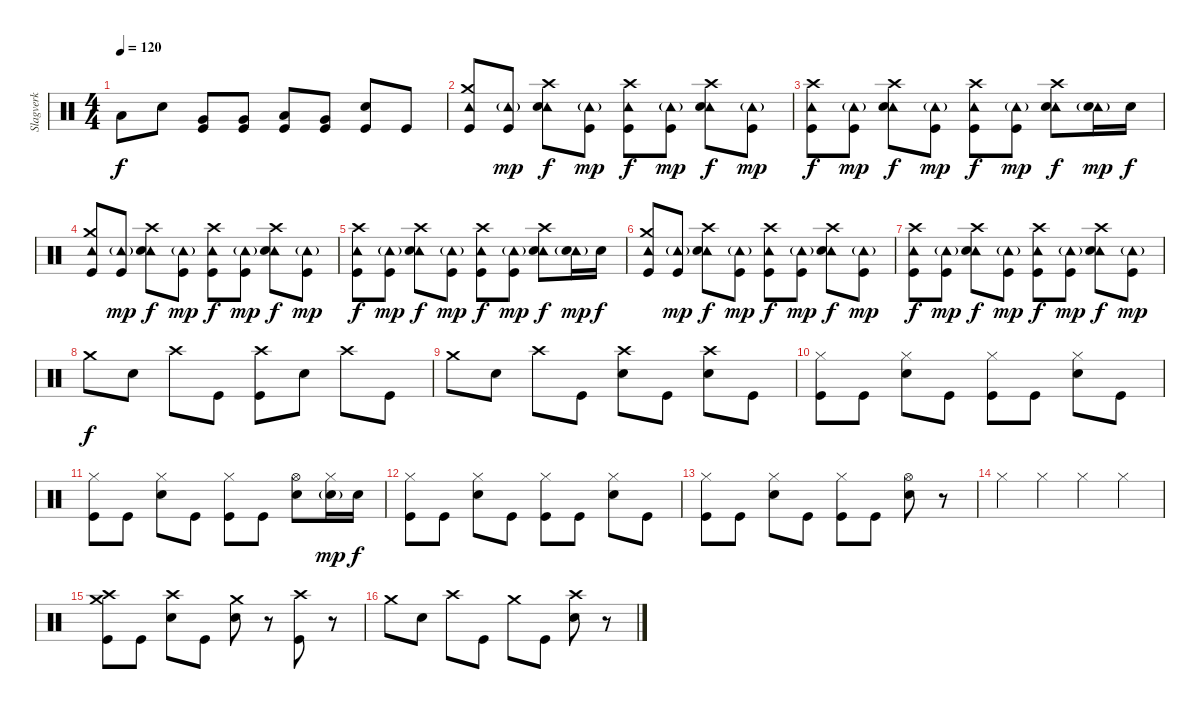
\track ("Slagverk" "Slagverk") {instrument percussion}
\staff {score}
\articulation defaults
\ts (4 4)
\tempo 120
\clef neutral
\ks c "Low Floor Tom (hit)".8{dy f} "Snare (hit) 2".8
("Very Low Tom (hit)" "Kick (hit)").8 ("Very Low Tom (hit)" "Kick (hit)").8 ("Low Tom (hit)" "Kick (hit)").8 ("Very Low Tom (hit)" "Kick (hit)").8 ("Snare (hit) 2" "Kick (hit)").8 "Kick (hit)".8 |
("Crash medium (hit)" "Tambourine (hit)" "Kick (hit)").8 ("Tambourine (hit)"{g} "Kick (hit)").8{dy mp} ("Crash high (hit)" "Tambourine (hit)" "Snare (hit) 2").8{dy f} ("Tambourine (hit)"{g} "Kick (hit)").8{dy mp} ("Crash high (hit)" "Tambourine (hit)" "Kick (hit)").8{dy f} ("Tambourine (hit)"{g} "Kick (hit)").8{dy mp} ("Crash high (hit)" "Tambourine (hit)" "Snare (hit) 2").8{dy f} ("Tambourine (hit)"{g} "Kick (hit)").8{dy mp} |
("Crash high (hit)" "Tambourine (hit)" "Kick (hit)").8{dy f} ("Tambourine (hit)"{g} "Kick (hit)").8{dy mp} ("Crash high (hit)" "Tambourine (hit)" "Snare (hit) 2").8{dy f} ("Tambourine (hit)"{g} "Kick (hit)").8{dy mp} ("Crash high (hit)" "Tambourine (hit)" "Kick (hit)").8{dy f} ("Tambourine (hit)"{g} "Kick (hit)").8{dy mp} ("Crash high (hit)" "Tambourine (hit)" "Snare (hit) 2").8{dy f} ("Tambourine (hit)"{g} "Snare (hit) 2").16{dy mp} "Snare (hit) 2".16{dy f} |
("Crash medium (hit)" "Tambourine (hit)" "Kick (hit)").8 ("Tambourine (hit)"{g} "Kick (hit)").8{dy mp} ("Crash high (hit)" "Tambourine (hit)" "Snare (hit) 2").8{dy f} ("Tambourine (hit)"{g} "Kick (hit)").8{dy mp} ("Crash high (hit)" "Tambourine (hit)" "Kick (hit)").8{dy f} ("Tambourine (hit)"{g} "Kick (hit)").8{dy mp} ("Crash high (hit)" "Tambourine (hit)" "Snare (hit) 2").8{dy f} ("Tambourine (hit)"{g} "Kick (hit)").8{dy mp} |
("Crash high (hit)" "Tambourine (hit)" "Kick (hit)").8{dy f} ("Tambourine (hit)"{g} "Kick (hit)").8{dy mp} ("Crash high (hit)" "Tambourine (hit)" "Snare (hit) 2").8{dy f} ("Tambourine (hit)"{g} "Kick (hit)").8{dy mp} ("Crash high (hit)" "Tambourine (hit)" "Kick (hit)").8{dy f} ("Tambourine (hit)"{g} "Kick (hit)").8{dy mp} ("Crash high (hit)" "Tambourine (hit)" "Snare (hit) 2").8{dy f} ("Tambourine (hit)"{g} "Snare (hit) 2").16{dy mp} "Snare (hit) 2".16{dy f} |
("Crash medium (hit)" "Tambourine (hit)" "Kick (hit)").8 ("Tambourine (hit)"{g} "Kick (hit)").8{dy mp} ("Crash high (hit)" "Tambourine (hit)" "Snare (hit) 2").8{dy f} ("Tambourine (hit)"{g} "Kick (hit)").8{dy mp} ("Crash high (hit)" "Tambourine (hit)" "Kick (hit)").8{dy f} ("Tambourine (hit)"{g} "Kick (hit)").8{dy mp} ("Crash high (hit)" "Tambourine (hit)" "Snare (hit) 2").8{dy f} ("Tambourine (hit)"{g} "Kick (hit)").8{dy mp} |
("Crash high (hit)" "Tambourine (hit)" "Kick (hit)").8{dy f} ("Tambourine (hit)"{g} "Kick (hit)").8{dy mp} ("Crash high (hit)" "Tambourine (hit)" "Snare (hit) 2").8{dy f} ("Tambourine (hit)"{g} "Kick (hit)").8{dy mp} ("Crash high (hit)" "Tambourine (hit)" "Kick (hit)").8{dy f} ("Tambourine (hit)"{g} "Kick (hit)").8{dy mp} ("Crash high (hit)" "Tambourine (hit)" "Snare (hit) 2").8{dy f} ("Tambourine (hit)"{g} "Kick (hit)").8{dy mp} |
"Crash medium (hit)".8{dy f} "Snare (hit) 2".8 "Crash high (hit)".8 "Kick (hit)".8 ("Crash high (hit)" "Kick (hit)").8 "Snare (hit) 2".8 "Crash high (hit)".8 "Kick (hit)".8 |
"Crash medium (hit)".8 "Snare (hit) 2".8 "Crash high (hit)".8 "Kick (hit)".8 ("Crash high (hit)" "Snare (hit) 2").8 "Kick (hit)".8 ("Crash high (hit)" "Snare (hit) 2").8 "Kick (hit)".8 |
("Hi-Hat (closed)" "Kick (hit)").8 "Kick (hit)".8 ("Hi-Hat (closed)" "Snare (hit) 2").8 "Kick (hit)".8 ("Hi-Hat (closed)" "Kick (hit)").8 "Kick (hit)".8 ("Hi-Hat (closed)" "Snare (hit) 2").8 "Kick (hit)".8 |
("Hi-Hat (closed)" "Kick (hit)").8 "Kick (hit)".8 ("Hi-Hat (closed)" "Snare (hit) 2").8 "Kick (hit)".8 ("Hi-Hat (closed)" "Kick (hit)").8 "Kick (hit)".8 ("Hi-Hat (open)" "Snare (hit) 2").8 ("Hi-Hat (closed)" "Snare (hit) 2"{g}).16{dy mp} "Snare (hit) 2".16{dy f} |
("Hi-Hat (closed)" "Kick (hit)").8 "Kick (hit)".8 ("Hi-Hat (closed)" "Snare (hit) 2").8 "Kick (hit)".8 ("Hi-Hat (closed)" "Kick (hit)").8 "Kick (hit)".8 ("Hi-Hat (closed)" "Snare (hit) 2").8 "Kick (hit)".8 |
("Hi-Hat (closed)" "Kick (hit)").8 "Kick (hit)".8 ("Hi-Hat (closed)" "Snare (hit) 2").8 "Kick (hit)".8 ("Hi-Hat (closed)" "Kick (hit)").8 "Kick (hit)".8 ("Hi-Hat (open)" "Snare (hit) 2").8 r.8 |
"Hi-Hat (closed)".4 "Hi-Hat (closed)".4 "Hi-Hat (closed)".4 "Hi-Hat (closed)".4 |
("Crash medium (hit)" "Crash high (hit)" "Kick (hit)").8 "Kick (hit)".8 ("Crash high (hit)" "Snare (hit) 2").8 "Kick (hit)".8 ("Crash medium (hit)" "Snare (hit) 2").8 r.8 ("Crash high (hit)" "Kick (hit)").8 r.8 |
"Crash medium (hit)".8 "Snare (hit) 2".8 "Crash high (hit)".8 "Kick (hit)".8 "Crash medium (hit)".8 "Kick (hit)".8 ("Crash high (hit)" "Snare (hit) 2").8 r.8
